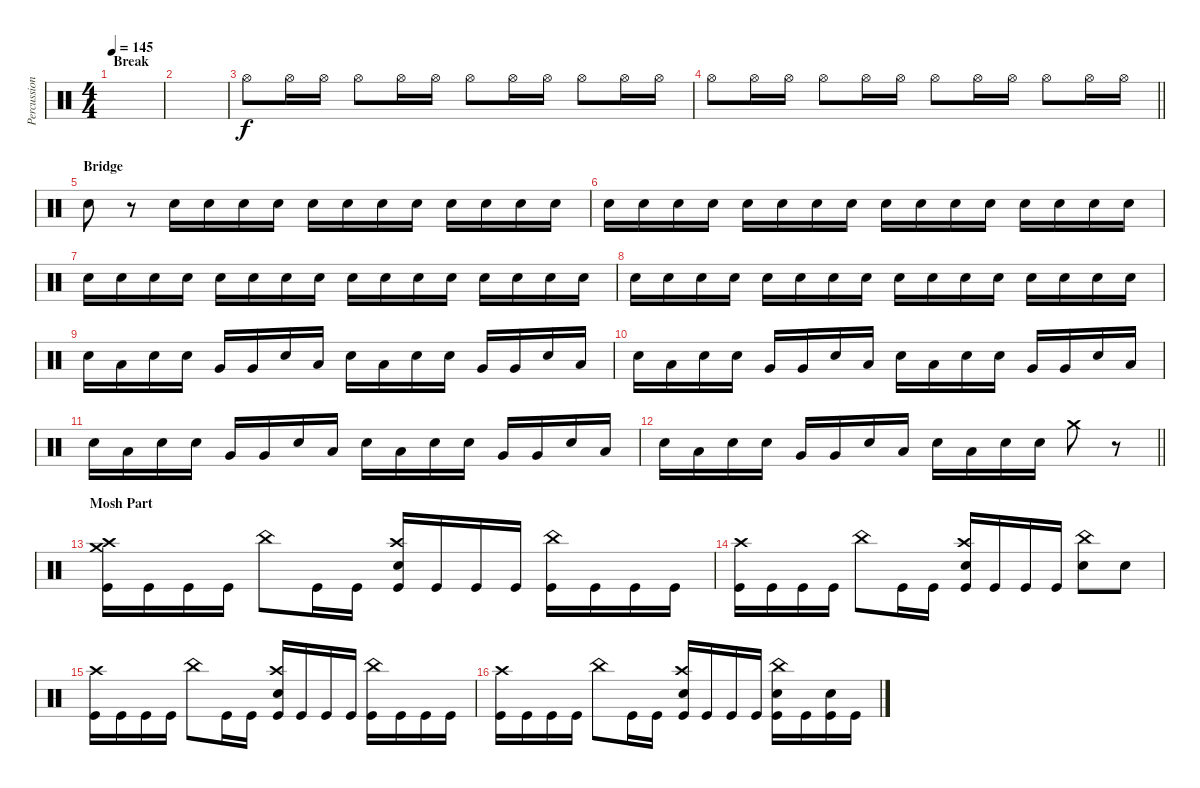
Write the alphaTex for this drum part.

\track ("Percussion" "Percussion") {instrument percussion}
\staff {score}
\articulation defaults
\ts (4 4)
\section ("" "Break")
\tempo 145
\clef neutral
\ks c
|
|
"Hi-Hat (open)".8 "Hi-Hat (open)".16 "Hi-Hat (open)".16 "Hi-Hat (open)".8 "Hi-Hat (open)".16 "Hi-Hat (open)".16 "Hi-Hat (open)".8 "Hi-Hat (open)".16 "Hi-Hat (open)".16 "Hi-Hat (open)".8 "Hi-Hat (open)".16 "Hi-Hat (open)".16 |
\barLineRight lightlight "Hi-Hat (open)".8 "Hi-Hat (open)".16 "Hi-Hat (open)".16 "Hi-Hat (open)".8 "Hi-Hat (open)".16 "Hi-Hat (open)".16 "Hi-Hat (open)".8 "Hi-Hat (open)".16 "Hi-Hat (open)".16 "Hi-Hat (open)".8 "Hi-Hat (open)".16 "Hi-Hat (open)".16
|
\section ("" "Bridge")
"Electric Snare (hit)".8 r.8{volume 0} "Electric Snare (hit)".16{volume 13} "Electric Snare (hit)".16 "Electric Snare (hit)".16 "Electric Snare (hit)".16 "Electric Snare (hit)".16 "Electric Snare (hit)".16 "Electric Snare (hit)".16 "Electric Snare (hit)".16 "Electric Snare (hit)".16 "Electric Snare (hit)".16 "Electric Snare (hit)".16 "Electric Snare (hit)".16 |
"Electric Snare (hit)".16 "Electric Snare (hit)".16 "Electric Snare (hit)".16 "Electric Snare (hit)".16 "Electric Snare (hit)".16 "Electric Snare (hit)".16 "Electric Snare (hit)".16 "Electric Snare (hit)".16 "Electric Snare (hit)".16 "Electric Snare (hit)".16 "Electric Snare (hit)".16 "Electric Snare (hit)".16 "Electric Snare (hit)".16 "Electric Snare (hit)".16 "Electric Snare (hit)".16 "Electric Snare (hit)".16 |
"Electric Snare (hit)".16 "Electric Snare (hit)".16 "Electric Snare (hit)".16 "Electric Snare (hit)".16 "Electric Snare (hit)".16 "Electric Snare (hit)".16 "Electric Snare (hit)".16 "Electric Snare (hit)".16 "Electric Snare (hit)".16 "Electric Snare (hit)".16 "Electric Snare (hit)".16 "Electric Snare (hit)".16 "Electric Snare (hit)".16 "Electric Snare (hit)".16 "Electric Snare (hit)".16 "Electric Snare (hit)".16 |
"Electric Snare (hit)".16 "Electric Snare (hit)".16 "Electric Snare (hit)".16 "Electric Snare (hit)".16 "Electric Snare (hit)".16 "Electric Snare (hit)".16 "Electric Snare (hit)".16 "Electric Snare (hit)".16 "Electric Snare (hit)".16 "Electric Snare (hit)".16 "Electric Snare (hit)".16 "Electric Snare (hit)".16 "Electric Snare (hit)".16 "Electric Snare (hit)".16 "Electric Snare (hit)".16 "Electric Snare (hit)".16 |
"Electric Snare (hit)".16 "Low Tom (hit)".16 "Electric Snare (hit)".16 "Electric Snare (hit)".16 "Very Low Tom (hit)".16 "Very Low Tom (hit)".16 "Electric Snare (hit)".16 "Low Floor Tom (hit)".16 "Electric Snare (hit)".16 "Low Tom (hit)".16 "Electric Snare (hit)".16 "Electric Snare (hit)".16 "Very Low Tom (hit)".16 "Very Low Tom (hit)".16 "Electric Snare (hit)".16 "Low Floor Tom (hit)".16 |
"Electric Snare (hit)".16 "Low Tom (hit)".16 "Electric Snare (hit)".16 "Electric Snare (hit)".16 "Very Low Tom (hit)".16 "Very Low Tom (hit)".16 "Electric Snare (hit)".16 "Low Floor Tom (hit)".16 "Electric Snare (hit)".16 "Low Tom (hit)".16 "Electric Snare (hit)".16 "Electric Snare (hit)".16 "Very Low Tom (hit)".16 "Very Low Tom (hit)".16 "Electric Snare (hit)".16 "Low Floor Tom (hit)".16 |
"Electric Snare (hit)".16 "Low Tom (hit)".16 "Electric Snare (hit)".16 "Electric Snare (hit)".16 "Very Low Tom (hit)".16 "Very Low Tom (hit)".16 "Electric Snare (hit)".16 "Low Floor Tom (hit)".16 "Electric Snare (hit)".16 "Low Tom (hit)".16 "Electric Snare (hit)".16 "Electric Snare (hit)".16 "Very Low Tom (hit)".16 "Very Low Tom (hit)".16 "Electric Snare (hit)".16 "Low Floor Tom (hit)".16 |
\barLineRight lightlight "Electric Snare (hit)".16 "Low Tom (hit)".16 "Electric Snare (hit)".16 "Electric Snare (hit)".16 "Very Low Tom (hit)".16 "Very Low Tom (hit)".16 "Electric Snare (hit)".16 "Low Floor Tom (hit)".16 "Electric Snare (hit)".16 "Low Tom (hit)".16 "Electric Snare (hit)".16 "Electric Snare (hit)".16 "Crash medium (hit)".8
r.8{volume 0} |
\section ("" "Mosh Part")
("Crash high (hit)" "Crash medium (hit)" "Kick (hit)").16{volume 13} "Kick (hit)".16 "Kick (hit)".16 "Kick (hit)".16 "China (hit)".8 "Kick (hit)".16 "Kick (hit)".16 ("Crash high (hit)" "Electric Snare (hit)" "Kick (hit)").16 "Kick (hit)".16 "Kick (hit)".16 "Kick (hit)".16 ("China (hit)" "Kick (hit)").16 "Kick (hit)".16 "Kick (hit)".16 "Kick (hit)".16 |
("Crash high (hit)" "Kick (hit)").16 "Kick (hit)".16 "Kick (hit)".16 "Kick (hit)".16 "China (hit)".8 "Kick (hit)".16 "Kick (hit)".16 ("Crash high (hit)" "Electric Snare (hit)" "Kick (hit)").16 "Kick (hit)".16 "Kick (hit)".16 "Kick (hit)".16 ("China (hit)" "Electric Snare (hit)").8 "Electric Snare (hit)".8 |
("Crash high (hit)" "Kick (hit)").16 "Kick (hit)".16 "Kick (hit)".16 "Kick (hit)".16 "China (hit)".8 "Kick (hit)".16 "Kick (hit)".16 ("Crash high (hit)" "Electric Snare (hit)" "Kick (hit)").16 "Kick (hit)".16 "Kick (hit)".16 "Kick (hit)".16 ("China (hit)" "Kick (hit)").16 "Kick (hit)".16 "Kick (hit)".16 "Kick (hit)".16 |
("Crash high (hit)" "Kick (hit)").16 "Kick (hit)".16 "Kick (hit)".16 "Kick (hit)".16 "China (hit)".8 "Kick (hit)".16 "Kick (hit)".16 ("Crash high (hit)" "Electric Snare (hit)" "Kick (hit)").16 "Kick (hit)".16 "Kick (hit)".16 "Kick (hit)".16 ("China (hit)" "Electric Snare (hit)" "Kick (hit)").16 "Kick (hit)".16 ("Electric Snare (hit)" "Kick (hit)").16 "Kick (hit)".16
